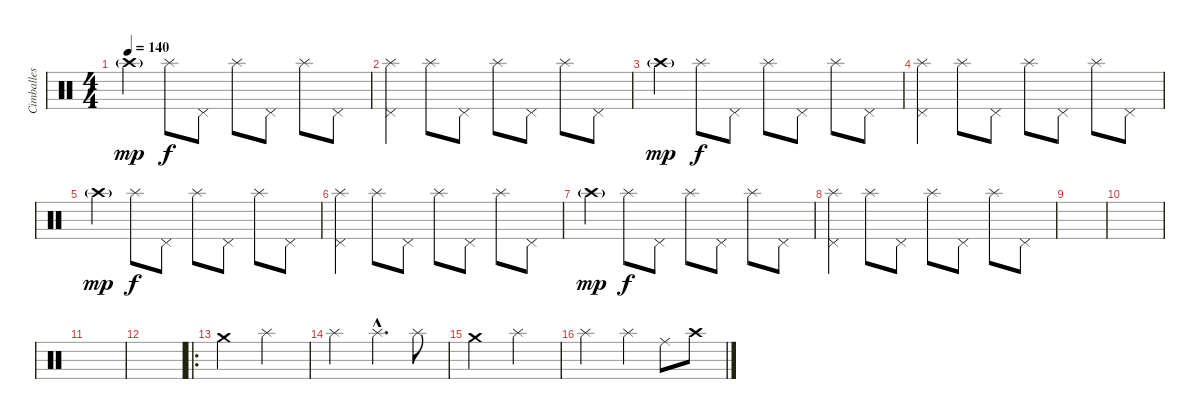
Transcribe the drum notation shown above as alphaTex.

\track ("Cimballes" "Cimballes") {instrument percussion}
\staff {score}
\articulation defaults
\ts (4 4)
\tempo 140
\clef neutral
\ks c "Crash high (hit)"{g}.4{dy mp} "Splash (hit)".8{dy f} "Pedal Hi-Hat (hit)".8 "Splash (hit)".8 "Pedal Hi-Hat (hit)".8 "Splash (hit)".8 "Pedal Hi-Hat (hit)".8
|
("Splash (hit)" "Pedal Hi-Hat (hit)").4 "Splash (hit)".8 "Pedal Hi-Hat (hit)".8 "Splash (hit)".8 "Pedal Hi-Hat (hit)".8 "Splash (hit)".8 "Pedal Hi-Hat (hit)".8 |
"Crash high (hit)"{g}.4{dy mp} "Splash (hit)".8{dy f} "Pedal Hi-Hat (hit)".8 "Splash (hit)".8 "Pedal Hi-Hat (hit)".8 "Splash (hit)".8 "Pedal Hi-Hat (hit)".8 |
("Splash (hit)" "Pedal Hi-Hat (hit)").4 "Splash (hit)".8 "Pedal Hi-Hat (hit)".8 "Splash (hit)".8 "Pedal Hi-Hat (hit)".8 "Splash (hit)".8 "Pedal Hi-Hat (hit)".8 |
"Crash high (hit)"{g}.4{dy mp} "Splash (hit)".8{dy f} "Pedal Hi-Hat (hit)".8 "Splash (hit)".8 "Pedal Hi-Hat (hit)".8 "Splash (hit)".8 "Pedal Hi-Hat (hit)".8 |
("Splash (hit)" "Pedal Hi-Hat (hit)").4 "Splash (hit)".8 "Pedal Hi-Hat (hit)".8 "Splash (hit)".8 "Pedal Hi-Hat (hit)".8 "Splash (hit)".8 "Pedal Hi-Hat (hit)".8 |
"Crash high (hit)"{g}.4{dy mp} "Splash (hit)".8{dy f} "Pedal Hi-Hat (hit)".8 "Splash (hit)".8 "Pedal Hi-Hat (hit)".8 "Splash (hit)".8 "Pedal Hi-Hat (hit)".8 |
("Splash (hit)" "Pedal Hi-Hat (hit)").4 "Splash (hit)".8 "Pedal Hi-Hat (hit)".8 "Splash (hit)".8 "Pedal Hi-Hat (hit)".8 "Splash (hit)".8 "Pedal Hi-Hat (hit)".8 |
|
|
|
|
\ro "Crash medium (hit)".2 "Splash (hit)".2
|
"Splash (hit)".2 "Splash (hit)"{hac}.4{d} "Splash (hit)".8 |
"Crash medium (hit)".2 "Splash (hit)".2 |
"Splash (hit)".2 "Splash (hit)".4 "Ride (middle)".8 "Crash high (hit)".8
